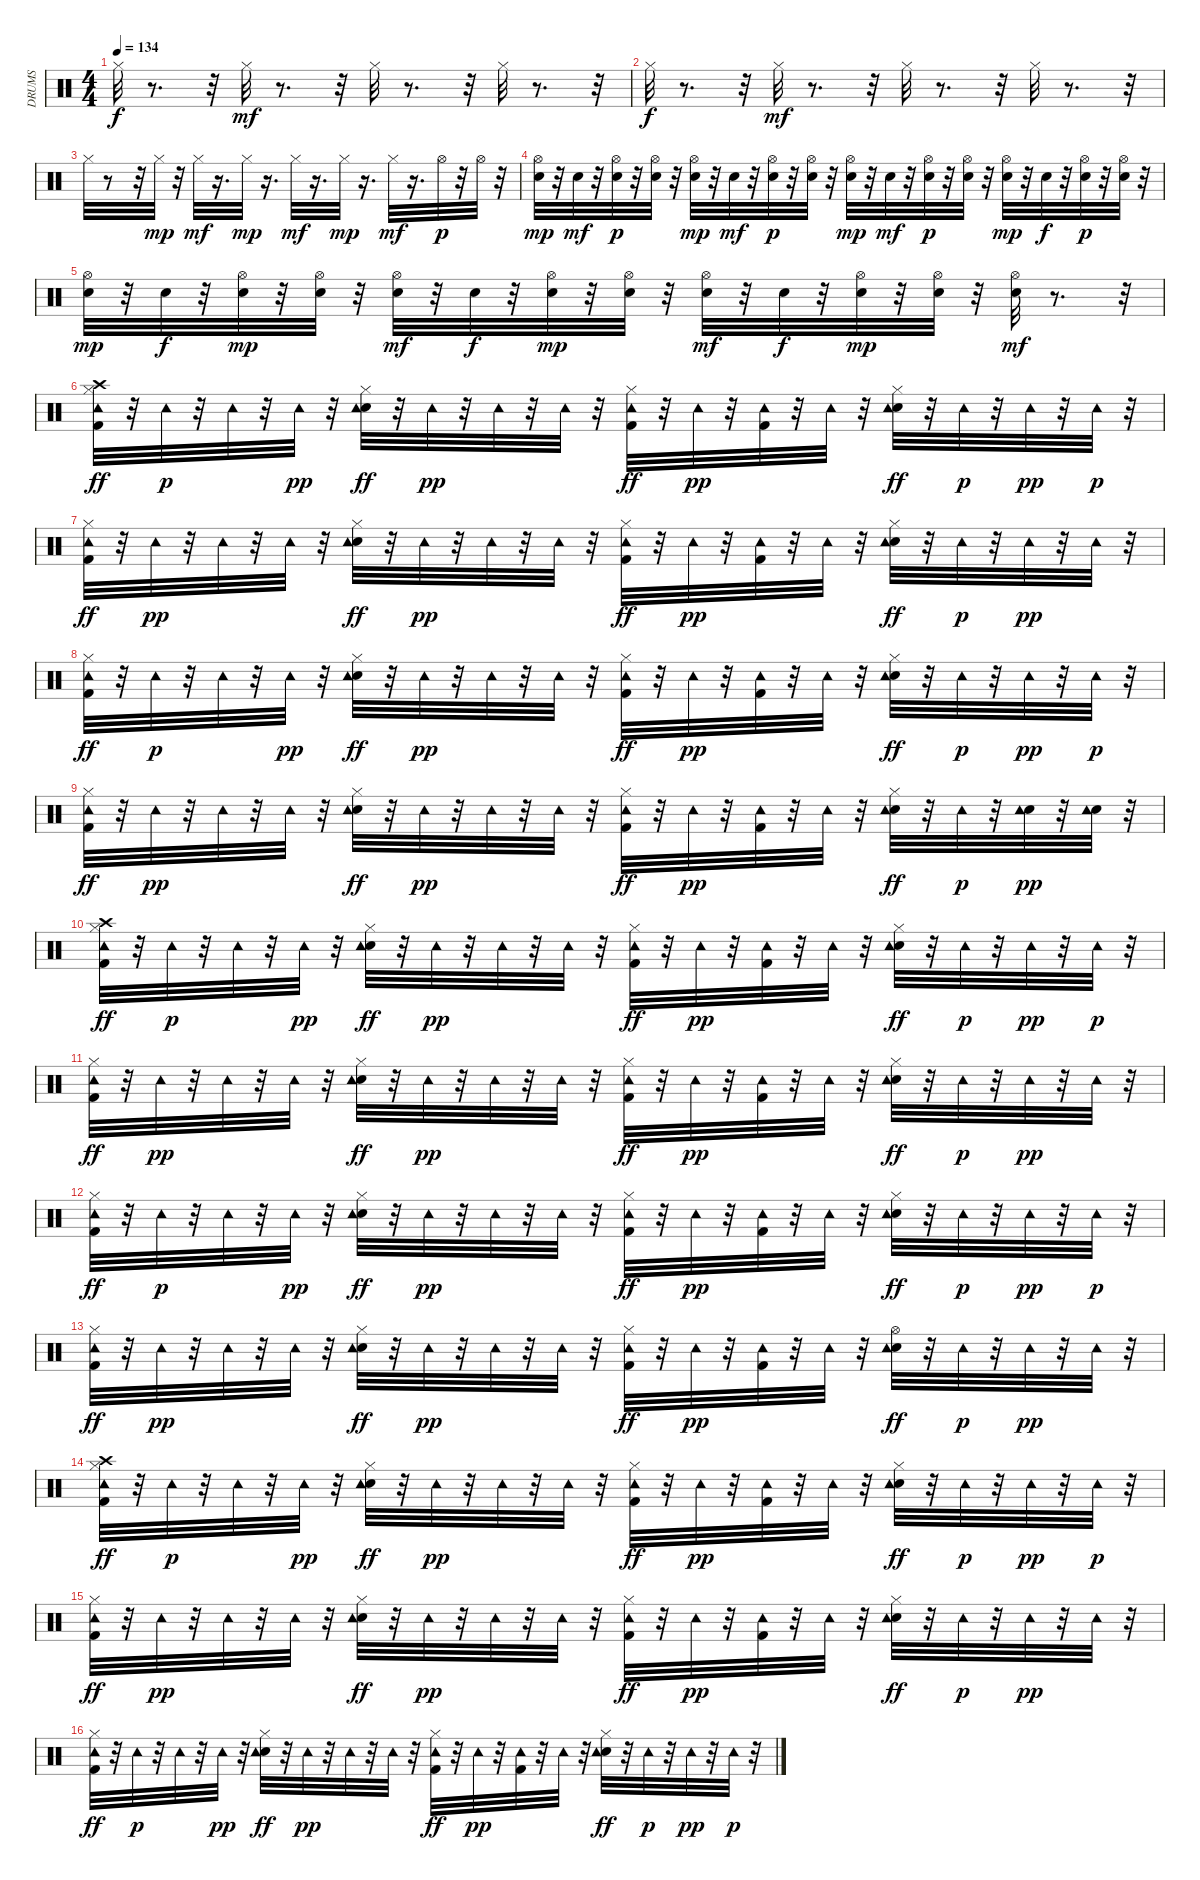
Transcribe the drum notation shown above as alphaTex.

\track ("DRUMS" "DRUMS") {instrument percussion}
\staff {score}
\articulation defaults
\ts (4 4)
\tempo 134
\clef neutral
\ks c "Hi-Hat (closed)".32{dy f}
r.8{d} r.32 "Hi-Hat (closed)".32{dy mf} r.8{d} r.32 "Hi-Hat (closed)".32 r.8{d} r.32 "Hi-Hat (closed)".32 r.8{d} r.32 |
"Hi-Hat (closed)".32{dy f} r.8{d} r.32 "Hi-Hat (closed)".32{dy mf} r.8{d} r.32 "Hi-Hat (closed)".32 r.8{d} r.32 "Hi-Hat (closed)".32 r.8{d} r.32 |
"Hi-Hat (closed)".32 r.8 r.32 "Hi-Hat (closed)".32{dy mp} r.32 "Hi-Hat (closed)".32{dy mf} r.16{d} "Hi-Hat (closed)".32{dy mp} r.16{d} "Hi-Hat (closed)".32{dy mf} r.16{d} "Hi-Hat (closed)".32{dy mp} r.16{d} "Hi-Hat (closed)".32{dy mf} r.16{d} "Hi-Hat (open)".32{dy p} r.32 "Hi-Hat (open)".32 r.32 |
("Snare (hit) 2" "Hi-Hat (open)").32{dy mp} r.32 "Snare (hit) 2".32{dy mf} r.32 ("Snare (hit) 2" "Hi-Hat (open)").32{dy p} r.32 ("Snare (hit) 2" "Hi-Hat (open)").32 r.32 ("Snare (hit) 2" "Hi-Hat (open)").32{dy mp} r.32 "Snare (hit) 2".32{dy mf} r.32 ("Snare (hit) 2" "Hi-Hat (open)").32{dy p} r.32 ("Snare (hit) 2" "Hi-Hat (open)").32 r.32 ("Snare (hit) 2" "Hi-Hat (open)").32{dy mp} r.32 "Snare (hit) 2".32{dy mf} r.32 ("Snare (hit) 2" "Hi-Hat (open)").32{dy p} r.32 ("Snare (hit) 2" "Hi-Hat (open)").32 r.32 ("Snare (hit) 2" "Hi-Hat (open)").32{dy mp} r.32 "Snare (hit) 2".32{dy f} r.32 ("Snare (hit) 2" "Hi-Hat (open)").32{dy p} r.32 ("Snare (hit) 2" "Hi-Hat (open)").32 r.32 |
("Snare (hit) 2" "Hi-Hat (open)").32{dy mp} r.32 "Snare (hit) 2".32{dy f} r.32 ("Snare (hit) 2" "Hi-Hat (open)").32{dy mp} r.32 ("Snare (hit) 2" "Hi-Hat (open)").32 r.32 ("Snare (hit) 2" "Hi-Hat (open)").32{dy mf} r.32 "Snare (hit) 2".32{dy f} r.32 ("Snare (hit) 2" "Hi-Hat (open)").32{dy mp} r.32 ("Snare (hit) 2" "Hi-Hat (open)").32 r.32 ("Snare (hit) 2" "Hi-Hat (open)").32{dy mf} r.32 "Snare (hit) 2".32{dy f} r.32 ("Snare (hit) 2" "Hi-Hat (open)").32{dy mp} r.32 ("Snare (hit) 2" "Hi-Hat (open)").32 r.32 ("Snare (hit) 2" "Hi-Hat (open)").32{dy mf} r.8{d} r.32 |
("Kick (hit) 2" "Hi-Hat (closed)" "Crash high (hit)" "Tambourine (hit)").32{dy ff} r.32 "Tambourine (hit)".32{dy p} r.32 "Tambourine (hit)".32 r.32 "Tambourine (hit)".32{dy pp} r.32 ("Snare (hit) 2" "Hi-Hat (closed)" "Tambourine (hit)").32{dy ff} r.32 "Tambourine (hit)".32{dy pp} r.32 "Tambourine (hit)".32 r.32 "Tambourine (hit)".32 r.32 ("Kick (hit) 2" "Hi-Hat (closed)" "Tambourine (hit)").32{dy ff} r.32 "Tambourine (hit)".32{dy pp} r.32 ("Kick (hit) 2" "Tambourine (hit)").32 r.32 "Tambourine (hit)".32 r.32 ("Snare (hit) 2" "Hi-Hat (closed)" "Tambourine (hit)").32{dy ff} r.32 "Tambourine (hit)".32{dy p} r.32 "Tambourine (hit)".32{dy pp} r.32 "Tambourine (hit)".32{dy p} r.32 |
("Kick (hit) 2" "Hi-Hat (closed)" "Tambourine (hit)").32{dy ff} r.32 "Tambourine (hit)".32{dy pp} r.32 "Tambourine (hit)".32 r.32 "Tambourine (hit)".32 r.32 ("Snare (hit) 2" "Hi-Hat (closed)" "Tambourine (hit)").32{dy ff} r.32 "Tambourine (hit)".32{dy pp} r.32 "Tambourine (hit)".32 r.32 "Tambourine (hit)".32 r.32 ("Kick (hit) 2" "Hi-Hat (closed)" "Tambourine (hit)").32{dy ff} r.32 "Tambourine (hit)".32{dy pp} r.32 ("Kick (hit) 2" "Tambourine (hit)").32 r.32 "Tambourine (hit)".32 r.32 ("Snare (hit) 2" "Hi-Hat (closed)" "Tambourine (hit)").32{dy ff} r.32 "Tambourine (hit)".32{dy p} r.32 "Tambourine (hit)".32{dy pp} r.32 "Tambourine (hit)".32 r.32 |
("Kick (hit) 2" "Hi-Hat (closed)" "Tambourine (hit)").32{dy ff} r.32 "Tambourine (hit)".32{dy p} r.32 "Tambourine (hit)".32 r.32 "Tambourine (hit)".32{dy pp} r.32 ("Snare (hit) 2" "Hi-Hat (closed)" "Tambourine (hit)").32{dy ff} r.32 "Tambourine (hit)".32{dy pp} r.32 "Tambourine (hit)".32 r.32 "Tambourine (hit)".32 r.32 ("Kick (hit) 2" "Hi-Hat (closed)" "Tambourine (hit)").32{dy ff} r.32 "Tambourine (hit)".32{dy pp} r.32 ("Kick (hit) 2" "Tambourine (hit)").32 r.32 "Tambourine (hit)".32 r.32 ("Snare (hit) 2" "Hi-Hat (closed)" "Tambourine (hit)").32{dy ff} r.32 "Tambourine (hit)".32{dy p} r.32 "Tambourine (hit)".32{dy pp} r.32 "Tambourine (hit)".32{dy p} r.32 |
("Kick (hit) 2" "Hi-Hat (closed)" "Tambourine (hit)").32{dy ff} r.32 "Tambourine (hit)".32{dy pp} r.32 "Tambourine (hit)".32 r.32 "Tambourine (hit)".32 r.32 ("Snare (hit) 2" "Hi-Hat (closed)" "Tambourine (hit)").32{dy ff} r.32 "Tambourine (hit)".32{dy pp} r.32 "Tambourine (hit)".32 r.32 "Tambourine (hit)".32 r.32 ("Kick (hit) 2" "Hi-Hat (closed)" "Tambourine (hit)").32{dy ff} r.32 "Tambourine (hit)".32{dy pp} r.32 ("Kick (hit) 2" "Tambourine (hit)").32 r.32 "Tambourine (hit)".32 r.32 ("Snare (hit) 2" "Hi-Hat (closed)" "Tambourine (hit)").32{dy ff} r.32 "Tambourine (hit)".32{dy p} r.32 ("Snare (hit) 2" "Tambourine (hit)").32{dy pp} r.32 ("Snare (hit) 2" "Tambourine (hit)").32 r.32 |
("Kick (hit) 2" "Hi-Hat (closed)" "Crash high (hit)" "Tambourine (hit)").32{dy ff} r.32 "Tambourine (hit)".32{dy p} r.32 "Tambourine (hit)".32 r.32 "Tambourine (hit)".32{dy pp} r.32 ("Snare (hit) 2" "Hi-Hat (closed)" "Tambourine (hit)").32{dy ff} r.32 "Tambourine (hit)".32{dy pp} r.32 "Tambourine (hit)".32 r.32 "Tambourine (hit)".32 r.32 ("Kick (hit) 2" "Hi-Hat (closed)" "Tambourine (hit)").32{dy ff} r.32 "Tambourine (hit)".32{dy pp} r.32 ("Kick (hit) 2" "Tambourine (hit)").32 r.32 "Tambourine (hit)".32 r.32 ("Snare (hit) 2" "Hi-Hat (closed)" "Tambourine (hit)").32{dy ff} r.32 "Tambourine (hit)".32{dy p} r.32 "Tambourine (hit)".32{dy pp} r.32 "Tambourine (hit)".32{dy p} r.32 |
("Kick (hit) 2" "Hi-Hat (closed)" "Tambourine (hit)").32{dy ff} r.32 "Tambourine (hit)".32{dy pp} r.32 "Tambourine (hit)".32 r.32 "Tambourine (hit)".32 r.32 ("Snare (hit) 2" "Hi-Hat (closed)" "Tambourine (hit)").32{dy ff} r.32 "Tambourine (hit)".32{dy pp} r.32 "Tambourine (hit)".32 r.32 "Tambourine (hit)".32 r.32 ("Kick (hit) 2" "Hi-Hat (closed)" "Tambourine (hit)").32{dy ff} r.32 "Tambourine (hit)".32{dy pp} r.32 ("Kick (hit) 2" "Tambourine (hit)").32 r.32 "Tambourine (hit)".32 r.32 ("Snare (hit) 2" "Hi-Hat (closed)" "Tambourine (hit)").32{dy ff} r.32 "Tambourine (hit)".32{dy p} r.32 "Tambourine (hit)".32{dy pp} r.32 "Tambourine (hit)".32 r.32 |
("Kick (hit) 2" "Hi-Hat (closed)" "Tambourine (hit)").32{dy ff} r.32 "Tambourine (hit)".32{dy p} r.32 "Tambourine (hit)".32 r.32 "Tambourine (hit)".32{dy pp} r.32 ("Snare (hit) 2" "Hi-Hat (closed)" "Tambourine (hit)").32{dy ff} r.32 "Tambourine (hit)".32{dy pp} r.32 "Tambourine (hit)".32 r.32 "Tambourine (hit)".32 r.32 ("Kick (hit) 2" "Hi-Hat (closed)" "Tambourine (hit)").32{dy ff} r.32 "Tambourine (hit)".32{dy pp} r.32 ("Kick (hit) 2" "Tambourine (hit)").32 r.32 "Tambourine (hit)".32 r.32 ("Snare (hit) 2" "Hi-Hat (closed)" "Tambourine (hit)").32{dy ff} r.32 "Tambourine (hit)".32{dy p} r.32 "Tambourine (hit)".32{dy pp} r.32 "Tambourine (hit)".32{dy p} r.32 |
("Kick (hit) 2" "Hi-Hat (closed)" "Tambourine (hit)").32{dy ff} r.32 "Tambourine (hit)".32{dy pp} r.32 "Tambourine (hit)".32 r.32 "Tambourine (hit)".32 r.32 ("Snare (hit) 2" "Hi-Hat (closed)" "Tambourine (hit)").32{dy ff} r.32 "Tambourine (hit)".32{dy pp} r.32 "Tambourine (hit)".32 r.32 "Tambourine (hit)".32 r.32 ("Kick (hit) 2" "Hi-Hat (closed)" "Tambourine (hit)").32{dy ff} r.32 "Tambourine (hit)".32{dy pp} r.32 ("Kick (hit) 2" "Tambourine (hit)").32 r.32 "Tambourine (hit)".32 r.32 ("Snare (hit) 2" "Hi-Hat (open)" "Tambourine (hit)").32{dy ff} r.32 "Tambourine (hit)".32{dy p} r.32 "Tambourine (hit)".32{dy pp} r.32 "Tambourine (hit)".32 r.32 |
("Kick (hit) 2" "Hi-Hat (closed)" "Crash high (hit)" "Tambourine (hit)").32{dy ff} r.32 "Tambourine (hit)".32{dy p} r.32 "Tambourine (hit)".32 r.32 "Tambourine (hit)".32{dy pp} r.32 ("Snare (hit) 2" "Hi-Hat (closed)" "Tambourine (hit)").32{dy ff} r.32 "Tambourine (hit)".32{dy pp} r.32 "Tambourine (hit)".32 r.32 "Tambourine (hit)".32 r.32 ("Kick (hit) 2" "Hi-Hat (closed)" "Tambourine (hit)").32{dy ff} r.32 "Tambourine (hit)".32{dy pp} r.32 ("Kick (hit) 2" "Tambourine (hit)").32 r.32 "Tambourine (hit)".32 r.32 ("Snare (hit) 2" "Hi-Hat (closed)" "Tambourine (hit)").32{dy ff} r.32 "Tambourine (hit)".32{dy p} r.32 "Tambourine (hit)".32{dy pp} r.32 "Tambourine (hit)".32{dy p} r.32 |
("Kick (hit) 2" "Hi-Hat (closed)" "Tambourine (hit)").32{dy ff} r.32 "Tambourine (hit)".32{dy pp} r.32 "Tambourine (hit)".32 r.32 "Tambourine (hit)".32 r.32 ("Snare (hit) 2" "Hi-Hat (closed)" "Tambourine (hit)").32{dy ff} r.32 "Tambourine (hit)".32{dy pp} r.32 "Tambourine (hit)".32 r.32 "Tambourine (hit)".32 r.32 ("Kick (hit) 2" "Hi-Hat (closed)" "Tambourine (hit)").32{dy ff} r.32 "Tambourine (hit)".32{dy pp} r.32 ("Kick (hit) 2" "Tambourine (hit)").32 r.32 "Tambourine (hit)".32 r.32 ("Snare (hit) 2" "Hi-Hat (closed)" "Tambourine (hit)").32{dy ff} r.32 "Tambourine (hit)".32{dy p} r.32 "Tambourine (hit)".32{dy pp} r.32 "Tambourine (hit)".32 r.32 |
("Kick (hit) 2" "Hi-Hat (closed)" "Tambourine (hit)").32{dy ff} r.32 "Tambourine (hit)".32{dy p} r.32 "Tambourine (hit)".32 r.32 "Tambourine (hit)".32{dy pp} r.32 ("Snare (hit) 2" "Hi-Hat (closed)" "Tambourine (hit)").32{dy ff} r.32 "Tambourine (hit)".32{dy pp} r.32 "Tambourine (hit)".32 r.32 "Tambourine (hit)".32 r.32 ("Kick (hit) 2" "Hi-Hat (closed)" "Tambourine (hit)").32{dy ff} r.32 "Tambourine (hit)".32{dy pp} r.32 ("Kick (hit) 2" "Tambourine (hit)").32 r.32 "Tambourine (hit)".32 r.32 ("Snare (hit) 2" "Hi-Hat (closed)" "Tambourine (hit)").32{dy ff} r.32 "Tambourine (hit)".32{dy p} r.32 "Tambourine (hit)".32{dy pp} r.32 "Tambourine (hit)".32{dy p} r.32
